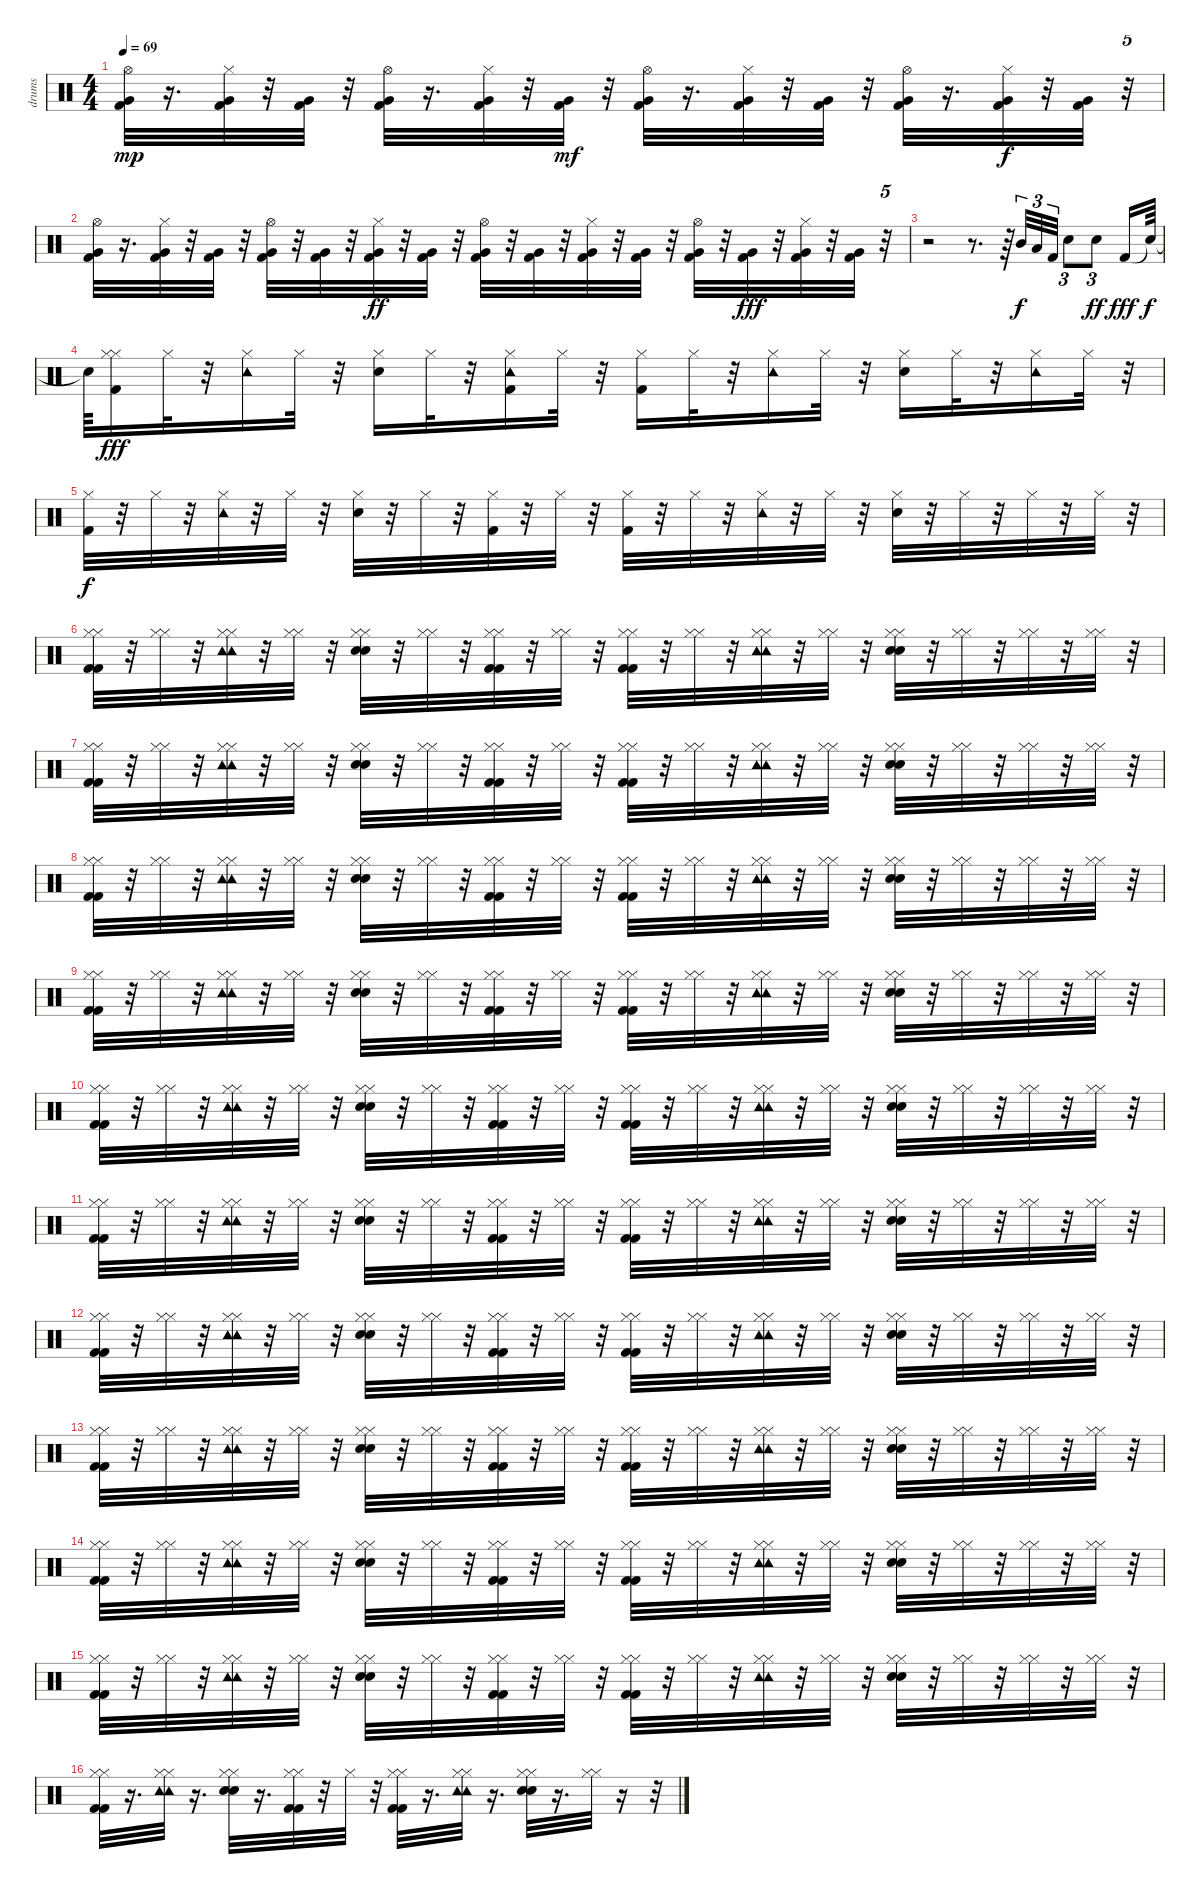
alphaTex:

\track ("drums" "drums") {instrument percussion}
\staff {score}
\articulation defaults
\ts (4 4)
\tempo 69
\clef neutral
\ks c
("Hi-Hat (open)" "Kick (hit) 2" "Very Low Tom (hit)").32{dy mp} r.16{d} ("Hi-Hat (closed)" "Very Low Tom (hit)" "Kick (hit) 2").32 r.32 ("Very Low Tom (hit)" "Kick (hit) 2").32 r.32 ("Hi-Hat (open)" "Very Low Tom (hit)" "Kick (hit) 2").32 r.16{d} ("Hi-Hat (closed)" "Very Low Tom (hit)" "Kick (hit) 2").32 r.32 ("Very Low Tom (hit)" "Kick (hit) 2").32{dy mf} r.32 ("Hi-Hat (open)" "Very Low Tom (hit)" "Kick (hit) 2").32 r.16{d} ("Hi-Hat (closed)" "Very Low Tom (hit)" "Kick (hit) 2").32 r.32 ("Very Low Tom (hit)" "Kick (hit) 2").32 r.32 ("Hi-Hat (open)" "Very Low Tom (hit)" "Kick (hit) 2").32 r.16{d} ("Hi-Hat (closed)" "Very Low Tom (hit)" "Kick (hit) 2").32{dy f} r.32 ("Very Low Tom (hit)" "Kick (hit) 2").32 r.32{tu (5 4)} |
("Hi-Hat (open)" "Kick (hit) 2" "Very Low Tom (hit)").32 r.16{d} ("Hi-Hat (closed)" "Very Low Tom (hit)" "Kick (hit) 2").32 r.32 ("Very Low Tom (hit)" "Kick (hit) 2").32 r.32 ("Hi-Hat (open)" "Very Low Tom (hit)" "Kick (hit) 2").32 r.32 ("Very Low Tom (hit)" "Kick (hit) 2").32 r.32 ("Hi-Hat (closed)" "Very Low Tom (hit)" "Kick (hit) 2").32{dy ff} r.32 ("Very Low Tom (hit)" "Kick (hit) 2").32 r.32 ("Hi-Hat (open)" "Very Low Tom (hit)" "Kick (hit) 2").32 r.32 ("Very Low Tom (hit)" "Kick (hit) 2").32 r.32 ("Hi-Hat (closed)" "Very Low Tom (hit)" "Kick (hit) 2").32 r.32 ("Very Low Tom (hit)" "Kick (hit) 2").32 r.32 ("Hi-Hat (open)" "Very Low Tom (hit)" "Kick (hit) 2").32 r.32 ("Very Low Tom (hit)" "Kick (hit) 2").32{dy fff} r.32 ("Hi-Hat (closed)" "Very Low Tom (hit)" "Kick (hit) 2").32 r.32 ("Very Low Tom (hit)" "Kick (hit) 2").32 r.32{tu (5 4)} |
r.2 r.8{d} r.64 "Mid Tom (hit)".32{tu (3 2) dy f} "Low Tom (hit)".32{tu (3 2)} "Kick (hit) 2".32{tu (3 2)} "Snare (hit) 2".8{tu (3 2)} "Snare (hit) 2".8{tu (3 2) dy ff} "Kick (hit) 2".16{dy fff} "Snare (hit)"{t}.64{dy f} |
"Snare (hit)"{t}.64 ("Hi-Hat (closed)" "Hi-Hat (closed)" "Kick (hit) 2").16{dy fff} "Hi-Hat (closed)".32 r.32 ("Hi-Hat (closed)" "Tambourine (hit)").16 "Hi-Hat (closed)".32 r.32 ("Hi-Hat (closed)" "Snare (hit) 2").16 "Hi-Hat (closed)".32 r.32 ("Tambourine (hit)" "Hi-Hat (closed)" "Kick (hit) 2").16 "Hi-Hat (closed)".32 r.32 ("Hi-Hat (closed)" "Kick (hit) 2").16 "Hi-Hat (closed)".32 r.32 ("Tambourine (hit)" "Hi-Hat (closed)").16 "Hi-Hat (closed)".32 r.32 ("Hi-Hat (closed)" "Snare (hit) 2").16 "Hi-Hat (closed)".32 r.32 ("Tambourine (hit)" "Hi-Hat (closed)").16 "Hi-Hat (closed)".32 r.32{tu (5 4)} |
("Hi-Hat (closed)" "Kick (hit) 2").32{dy f} r.32 "Hi-Hat (closed)".32 r.32 ("Hi-Hat (closed)" "Tambourine (hit)").32 r.32 "Hi-Hat (closed)".32 r.32 ("Hi-Hat (closed)" "Snare (hit) 2").32 r.32 "Hi-Hat (closed)".32 r.32 ("Hi-Hat (closed)" "Kick (hit) 2").32 r.32 "Hi-Hat (closed)".32 r.32 ("Hi-Hat (closed)" "Kick (hit) 2").32 r.32 "Hi-Hat (closed)".32 r.32 ("Hi-Hat (closed)" "Tambourine (hit)").32 r.32 "Hi-Hat (closed)".32 r.32 ("Hi-Hat (closed)" "Snare (hit) 2").32 r.32 "Hi-Hat (closed)".32 r.32 "Hi-Hat (closed)".32 r.32 "Hi-Hat (closed)".32 r.32{tu (5 4)} |
("Hi-Hat (closed)" "Kick (hit) 2" "Hi-Hat (closed)" "Kick (hit) 2").32 r.32 ("Hi-Hat (closed)" "Hi-Hat (closed)").32 r.32 ("Hi-Hat (closed)" "Tambourine (hit)" "Hi-Hat (closed)" "Tambourine (hit)").32 r.32 ("Hi-Hat (closed)" "Hi-Hat (closed)").32 r.32 ("Hi-Hat (closed)" "Snare (hit) 2" "Hi-Hat (closed)" "Snare (hit) 2").32 r.32 ("Hi-Hat (closed)" "Hi-Hat (closed)").32 r.32 ("Hi-Hat (closed)" "Kick (hit) 2" "Hi-Hat (closed)" "Kick (hit) 2").32 r.32 ("Hi-Hat (closed)" "Hi-Hat (closed)").32 r.32 ("Hi-Hat (closed)" "Kick (hit) 2" "Hi-Hat (closed)" "Kick (hit) 2").32 r.32 ("Hi-Hat (closed)" "Hi-Hat (closed)").32 r.32 ("Hi-Hat (closed)" "Tambourine (hit)" "Hi-Hat (closed)" "Tambourine (hit)").32 r.32 ("Hi-Hat (closed)" "Hi-Hat (closed)").32 r.32 ("Hi-Hat (closed)" "Snare (hit) 2" "Hi-Hat (closed)" "Snare (hit) 2").32 r.32 ("Hi-Hat (closed)" "Hi-Hat (closed)").32 r.32 ("Hi-Hat (closed)" "Hi-Hat (closed)").32 r.32 ("Hi-Hat (closed)" "Hi-Hat (closed)").32 r.32{tu (5 4)} |
("Hi-Hat (closed)" "Kick (hit) 2" "Hi-Hat (closed)" "Kick (hit) 2").32 r.32 ("Hi-Hat (closed)" "Hi-Hat (closed)").32 r.32 ("Hi-Hat (closed)" "Tambourine (hit)" "Hi-Hat (closed)" "Tambourine (hit)").32 r.32 ("Hi-Hat (closed)" "Hi-Hat (closed)").32 r.32 ("Hi-Hat (closed)" "Snare (hit) 2" "Hi-Hat (closed)" "Snare (hit) 2").32 r.32 ("Hi-Hat (closed)" "Hi-Hat (closed)").32 r.32 ("Hi-Hat (closed)" "Kick (hit) 2" "Hi-Hat (closed)" "Kick (hit) 2").32 r.32 ("Hi-Hat (closed)" "Hi-Hat (closed)").32 r.32 ("Hi-Hat (closed)" "Kick (hit) 2" "Hi-Hat (closed)" "Kick (hit) 2").32 r.32 ("Hi-Hat (closed)" "Hi-Hat (closed)").32 r.32 ("Hi-Hat (closed)" "Tambourine (hit)" "Hi-Hat (closed)" "Tambourine (hit)").32 r.32 ("Hi-Hat (closed)" "Hi-Hat (closed)").32 r.32 ("Hi-Hat (closed)" "Snare (hit) 2" "Hi-Hat (closed)" "Snare (hit) 2").32 r.32 ("Hi-Hat (closed)" "Hi-Hat (closed)").32 r.32 ("Hi-Hat (closed)" "Hi-Hat (closed)").32 r.32 ("Hi-Hat (closed)" "Hi-Hat (closed)").32 r.32{tu (5 4)} |
("Hi-Hat (closed)" "Kick (hit) 2" "Hi-Hat (closed)" "Kick (hit) 2").32 r.32 ("Hi-Hat (closed)" "Hi-Hat (closed)").32 r.32 ("Hi-Hat (closed)" "Tambourine (hit)" "Hi-Hat (closed)" "Tambourine (hit)").32 r.32 ("Hi-Hat (closed)" "Hi-Hat (closed)").32 r.32 ("Hi-Hat (closed)" "Snare (hit) 2" "Hi-Hat (closed)" "Snare (hit) 2").32 r.32 ("Hi-Hat (closed)" "Hi-Hat (closed)").32 r.32 ("Hi-Hat (closed)" "Kick (hit) 2" "Hi-Hat (closed)" "Kick (hit) 2").32 r.32 ("Hi-Hat (closed)" "Hi-Hat (closed)").32 r.32 ("Hi-Hat (closed)" "Kick (hit) 2" "Hi-Hat (closed)" "Kick (hit) 2").32 r.32 ("Hi-Hat (closed)" "Hi-Hat (closed)").32 r.32 ("Hi-Hat (closed)" "Tambourine (hit)" "Hi-Hat (closed)" "Tambourine (hit)").32 r.32 ("Hi-Hat (closed)" "Hi-Hat (closed)").32 r.32 ("Hi-Hat (closed)" "Snare (hit) 2" "Hi-Hat (closed)" "Snare (hit) 2").32 r.32 ("Hi-Hat (closed)" "Hi-Hat (closed)").32 r.32 ("Hi-Hat (closed)" "Hi-Hat (closed)").32 r.32 ("Hi-Hat (closed)" "Hi-Hat (closed)").32 r.32{tu (5 4)} |
("Hi-Hat (closed)" "Kick (hit) 2" "Hi-Hat (closed)" "Kick (hit) 2").32 r.32 ("Hi-Hat (closed)" "Hi-Hat (closed)").32 r.32 ("Hi-Hat (closed)" "Tambourine (hit)" "Hi-Hat (closed)" "Tambourine (hit)").32 r.32 ("Hi-Hat (closed)" "Hi-Hat (closed)").32 r.32 ("Hi-Hat (closed)" "Snare (hit) 2" "Hi-Hat (closed)" "Snare (hit) 2").32 r.32 ("Hi-Hat (closed)" "Hi-Hat (closed)").32 r.32 ("Hi-Hat (closed)" "Kick (hit) 2" "Hi-Hat (closed)" "Kick (hit) 2").32 r.32 ("Hi-Hat (closed)" "Hi-Hat (closed)").32 r.32 ("Hi-Hat (closed)" "Kick (hit) 2" "Hi-Hat (closed)" "Kick (hit) 2").32 r.32 ("Hi-Hat (closed)" "Hi-Hat (closed)").32 r.32 ("Hi-Hat (closed)" "Tambourine (hit)" "Hi-Hat (closed)" "Tambourine (hit)").32 r.32 ("Hi-Hat (closed)" "Hi-Hat (closed)").32 r.32 ("Hi-Hat (closed)" "Snare (hit) 2" "Hi-Hat (closed)" "Snare (hit) 2").32 r.32 ("Hi-Hat (closed)" "Hi-Hat (closed)").32 r.32 ("Hi-Hat (closed)" "Hi-Hat (closed)").32 r.32 ("Hi-Hat (closed)" "Hi-Hat (closed)").32 r.32{tu (5 4)} |
("Hi-Hat (closed)" "Kick (hit) 2" "Hi-Hat (closed)" "Kick (hit) 2").32 r.32 ("Hi-Hat (closed)" "Hi-Hat (closed)").32 r.32 ("Hi-Hat (closed)" "Tambourine (hit)" "Hi-Hat (closed)" "Tambourine (hit)").32 r.32 ("Hi-Hat (closed)" "Hi-Hat (closed)").32 r.32 ("Hi-Hat (closed)" "Snare (hit) 2" "Hi-Hat (closed)" "Snare (hit) 2").32 r.32 ("Hi-Hat (closed)" "Hi-Hat (closed)").32 r.32 ("Hi-Hat (closed)" "Kick (hit) 2" "Hi-Hat (closed)" "Kick (hit) 2").32 r.32 ("Hi-Hat (closed)" "Hi-Hat (closed)").32 r.32 ("Hi-Hat (closed)" "Kick (hit) 2" "Hi-Hat (closed)" "Kick (hit) 2").32 r.32 ("Hi-Hat (closed)" "Hi-Hat (closed)").32 r.32 ("Hi-Hat (closed)" "Tambourine (hit)" "Hi-Hat (closed)" "Tambourine (hit)").32 r.32 ("Hi-Hat (closed)" "Hi-Hat (closed)").32 r.32 ("Hi-Hat (closed)" "Snare (hit) 2" "Hi-Hat (closed)" "Snare (hit) 2").32 r.32 ("Hi-Hat (closed)" "Hi-Hat (closed)").32 r.32 ("Hi-Hat (closed)" "Hi-Hat (closed)").32 r.32 ("Hi-Hat (closed)" "Hi-Hat (closed)").32 r.32{tu (5 4)} |
("Hi-Hat (closed)" "Kick (hit) 2" "Hi-Hat (closed)" "Kick (hit) 2").32 r.32 ("Hi-Hat (closed)" "Hi-Hat (closed)").32 r.32 ("Hi-Hat (closed)" "Tambourine (hit)" "Hi-Hat (closed)" "Tambourine (hit)").32 r.32 ("Hi-Hat (closed)" "Hi-Hat (closed)").32 r.32 ("Hi-Hat (closed)" "Snare (hit) 2" "Hi-Hat (closed)" "Snare (hit) 2").32 r.32 ("Hi-Hat (closed)" "Hi-Hat (closed)").32 r.32 ("Hi-Hat (closed)" "Kick (hit) 2" "Hi-Hat (closed)" "Kick (hit) 2").32 r.32 ("Hi-Hat (closed)" "Hi-Hat (closed)").32 r.32 ("Hi-Hat (closed)" "Kick (hit) 2" "Hi-Hat (closed)" "Kick (hit) 2").32 r.32 ("Hi-Hat (closed)" "Hi-Hat (closed)").32 r.32 ("Hi-Hat (closed)" "Tambourine (hit)" "Hi-Hat (closed)" "Tambourine (hit)").32 r.32 ("Hi-Hat (closed)" "Hi-Hat (closed)").32 r.32 ("Hi-Hat (closed)" "Snare (hit) 2" "Hi-Hat (closed)" "Snare (hit) 2").32 r.32 ("Hi-Hat (closed)" "Hi-Hat (closed)").32 r.32 ("Hi-Hat (closed)" "Hi-Hat (closed)").32 r.32 ("Hi-Hat (closed)" "Hi-Hat (closed)").32 r.32{tu (5 4)} |
("Hi-Hat (closed)" "Kick (hit) 2" "Hi-Hat (closed)" "Kick (hit) 2").32 r.32 ("Hi-Hat (closed)" "Hi-Hat (closed)").32 r.32 ("Hi-Hat (closed)" "Tambourine (hit)" "Hi-Hat (closed)" "Tambourine (hit)").32 r.32 ("Hi-Hat (closed)" "Hi-Hat (closed)").32 r.32 ("Hi-Hat (closed)" "Snare (hit) 2" "Hi-Hat (closed)" "Snare (hit) 2").32 r.32 ("Hi-Hat (closed)" "Hi-Hat (closed)").32 r.32 ("Hi-Hat (closed)" "Kick (hit) 2" "Hi-Hat (closed)" "Kick (hit) 2").32 r.32 ("Hi-Hat (closed)" "Hi-Hat (closed)").32 r.32 ("Hi-Hat (closed)" "Kick (hit) 2" "Hi-Hat (closed)" "Kick (hit) 2").32 r.32 ("Hi-Hat (closed)" "Hi-Hat (closed)").32 r.32 ("Hi-Hat (closed)" "Tambourine (hit)" "Hi-Hat (closed)" "Tambourine (hit)").32 r.32 ("Hi-Hat (closed)" "Hi-Hat (closed)").32 r.32 ("Hi-Hat (closed)" "Snare (hit) 2" "Hi-Hat (closed)" "Snare (hit) 2").32 r.32 ("Hi-Hat (closed)" "Hi-Hat (closed)").32 r.32 ("Hi-Hat (closed)" "Hi-Hat (closed)").32 r.32 ("Hi-Hat (closed)" "Hi-Hat (closed)").32 r.32{tu (5 4)} |
("Hi-Hat (closed)" "Kick (hit) 2" "Hi-Hat (closed)" "Kick (hit) 2").32 r.32 ("Hi-Hat (closed)" "Hi-Hat (closed)").32 r.32 ("Hi-Hat (closed)" "Tambourine (hit)" "Hi-Hat (closed)" "Tambourine (hit)").32 r.32 ("Hi-Hat (closed)" "Hi-Hat (closed)").32 r.32 ("Hi-Hat (closed)" "Snare (hit) 2" "Hi-Hat (closed)" "Snare (hit) 2").32 r.32 ("Hi-Hat (closed)" "Hi-Hat (closed)").32 r.32 ("Hi-Hat (closed)" "Kick (hit) 2" "Hi-Hat (closed)" "Kick (hit) 2").32 r.32 ("Hi-Hat (closed)" "Hi-Hat (closed)").32 r.32 ("Hi-Hat (closed)" "Kick (hit) 2" "Hi-Hat (closed)" "Kick (hit) 2").32 r.32 ("Hi-Hat (closed)" "Hi-Hat (closed)").32 r.32 ("Hi-Hat (closed)" "Tambourine (hit)" "Hi-Hat (closed)" "Tambourine (hit)").32 r.32 ("Hi-Hat (closed)" "Hi-Hat (closed)").32 r.32 ("Hi-Hat (closed)" "Snare (hit) 2" "Hi-Hat (closed)" "Snare (hit) 2").32 r.32 ("Hi-Hat (closed)" "Hi-Hat (closed)").32 r.32 ("Hi-Hat (closed)" "Hi-Hat (closed)").32 r.32 ("Hi-Hat (closed)" "Hi-Hat (closed)").32 r.32{tu (5 4)} |
("Hi-Hat (closed)" "Kick (hit) 2" "Hi-Hat (closed)" "Kick (hit) 2").32 r.32 ("Hi-Hat (closed)" "Hi-Hat (closed)").32 r.32 ("Hi-Hat (closed)" "Tambourine (hit)" "Hi-Hat (closed)" "Tambourine (hit)").32 r.32 ("Hi-Hat (closed)" "Hi-Hat (closed)").32 r.32 ("Hi-Hat (closed)" "Snare (hit) 2" "Hi-Hat (closed)" "Snare (hit) 2").32 r.32 ("Hi-Hat (closed)" "Hi-Hat (closed)").32 r.32 ("Hi-Hat (closed)" "Kick (hit) 2" "Hi-Hat (closed)" "Kick (hit) 2").32 r.32 ("Hi-Hat (closed)" "Hi-Hat (closed)").32 r.32 ("Hi-Hat (closed)" "Kick (hit) 2" "Hi-Hat (closed)" "Kick (hit) 2").32 r.32 ("Hi-Hat (closed)" "Hi-Hat (closed)").32 r.32 ("Hi-Hat (closed)" "Tambourine (hit)" "Hi-Hat (closed)" "Tambourine (hit)").32 r.32 ("Hi-Hat (closed)" "Hi-Hat (closed)").32 r.32 ("Hi-Hat (closed)" "Snare (hit) 2" "Hi-Hat (closed)" "Snare (hit) 2").32 r.32 ("Hi-Hat (closed)" "Hi-Hat (closed)").32 r.32 ("Hi-Hat (closed)" "Hi-Hat (closed)").32 r.32 ("Hi-Hat (closed)" "Hi-Hat (closed)").32 r.32{tu (5 4)} |
("Hi-Hat (closed)" "Kick (hit) 2" "Hi-Hat (closed)" "Kick (hit) 2").32 r.32 ("Hi-Hat (closed)" "Hi-Hat (closed)").32 r.32 ("Hi-Hat (closed)" "Tambourine (hit)" "Hi-Hat (closed)" "Tambourine (hit)").32 r.32 ("Hi-Hat (closed)" "Hi-Hat (closed)").32 r.32 ("Hi-Hat (closed)" "Snare (hit) 2" "Hi-Hat (closed)" "Snare (hit) 2").32 r.32 ("Hi-Hat (closed)" "Hi-Hat (closed)").32 r.32 ("Hi-Hat (closed)" "Kick (hit) 2" "Hi-Hat (closed)" "Kick (hit) 2").32 r.32 ("Hi-Hat (closed)" "Hi-Hat (closed)").32 r.32 ("Hi-Hat (closed)" "Kick (hit) 2" "Hi-Hat (closed)" "Kick (hit) 2").32 r.32 ("Hi-Hat (closed)" "Hi-Hat (closed)").32 r.32 ("Hi-Hat (closed)" "Tambourine (hit)" "Hi-Hat (closed)" "Tambourine (hit)").32 r.32 ("Hi-Hat (closed)" "Hi-Hat (closed)").32 r.32 ("Hi-Hat (closed)" "Snare (hit) 2" "Hi-Hat (closed)" "Snare (hit) 2").32 r.32 ("Hi-Hat (closed)" "Hi-Hat (closed)").32 r.32 ("Hi-Hat (closed)" "Hi-Hat (closed)").32 r.32 ("Hi-Hat (closed)" "Hi-Hat (closed)").32 r.32{tu (5 4)} |
("Hi-Hat (closed)" "Kick (hit) 2" "Hi-Hat (closed)" "Kick (hit) 2").32 r.16{d} ("Hi-Hat (closed)" "Tambourine (hit)" "Hi-Hat (closed)" "Tambourine (hit)").32 r.16{d} ("Hi-Hat (closed)" "Snare (hit) 2" "Hi-Hat (closed)" "Snare (hit) 2").32 r.16{d} ("Hi-Hat (closed)" "Kick (hit) 2" "Hi-Hat (closed)" "Kick (hit) 2").32 r.32 "Hi-Hat (closed)".32 r.32 ("Hi-Hat (closed)" "Kick (hit) 2" "Hi-Hat (closed)" "Kick (hit) 2").32 r.16{d} ("Hi-Hat (closed)" "Tambourine (hit)" "Hi-Hat (closed)" "Tambourine (hit)").32 r.16{d} ("Hi-Hat (closed)" "Snare (hit) 2" "Hi-Hat (closed)" "Snare (hit) 2").32 r.16{d} ("Hi-Hat (closed)" "Hi-Hat (closed)").32 r.16 r.32{tu (5 4)}
